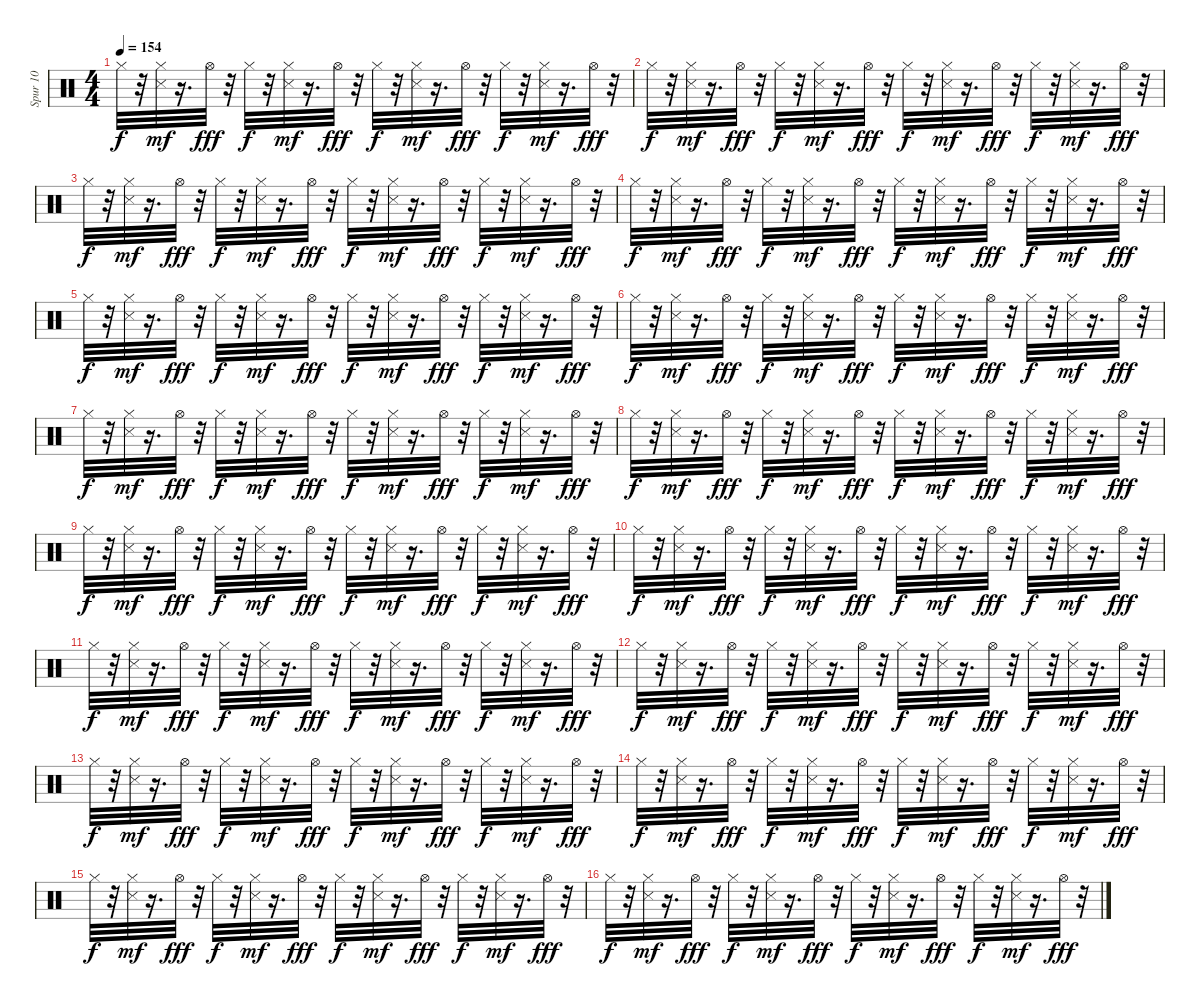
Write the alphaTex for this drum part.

\track ("Spur 10" "Spur 10") {instrument percussion}
\staff {score}
\articulation defaults
\ts (4 4)
\tempo 154
\clef neutral
\ks c "Hi-Hat (closed)".32{dy f}
r.32 ("Metronome (hit)" "Hi-Hat (closed)").32{dy mf} r.16{d} "Hi-Hat (open)".32{dy fff} r.32 "Hi-Hat (closed)".32{dy f} r.32 ("Metronome (hit)" "Hi-Hat (closed)").32{dy mf} r.16{d} "Hi-Hat (open)".32{dy fff} r.32 "Hi-Hat (closed)".32{dy f} r.32 ("Metronome (hit)" "Hi-Hat (closed)").32{dy mf} r.16{d} "Hi-Hat (open)".32{dy fff} r.32 "Hi-Hat (closed)".32{dy f} r.32 ("Metronome (hit)" "Hi-Hat (closed)").32{dy mf} r.16{d} "Hi-Hat (open)".32{dy fff} r.32 |
"Hi-Hat (closed)".32{dy f} r.32 ("Metronome (hit)" "Hi-Hat (closed)").32{dy mf} r.16{d} "Hi-Hat (open)".32{dy fff} r.32 "Hi-Hat (closed)".32{dy f} r.32 ("Metronome (hit)" "Hi-Hat (closed)").32{dy mf} r.16{d} "Hi-Hat (open)".32{dy fff} r.32 "Hi-Hat (closed)".32{dy f} r.32 ("Metronome (hit)" "Hi-Hat (closed)").32{dy mf} r.16{d} "Hi-Hat (open)".32{dy fff} r.32 "Hi-Hat (closed)".32{dy f} r.32 ("Metronome (hit)" "Hi-Hat (closed)").32{dy mf} r.16{d} "Hi-Hat (open)".32{dy fff} r.32 |
"Hi-Hat (closed)".32{dy f} r.32 ("Metronome (hit)" "Hi-Hat (closed)").32{dy mf} r.16{d} "Hi-Hat (open)".32{dy fff} r.32 "Hi-Hat (closed)".32{dy f} r.32 ("Metronome (hit)" "Hi-Hat (closed)").32{dy mf} r.16{d} "Hi-Hat (open)".32{dy fff} r.32 "Hi-Hat (closed)".32{dy f} r.32 ("Metronome (hit)" "Hi-Hat (closed)").32{dy mf} r.16{d} "Hi-Hat (open)".32{dy fff} r.32 "Hi-Hat (closed)".32{dy f} r.32 ("Metronome (hit)" "Hi-Hat (closed)").32{dy mf} r.16{d} "Hi-Hat (open)".32{dy fff} r.32 |
"Hi-Hat (closed)".32{dy f} r.32 ("Metronome (hit)" "Hi-Hat (closed)").32{dy mf} r.16{d} "Hi-Hat (open)".32{dy fff} r.32 "Hi-Hat (closed)".32{dy f} r.32 ("Metronome (hit)" "Hi-Hat (closed)").32{dy mf} r.16{d} "Hi-Hat (open)".32{dy fff} r.32 "Hi-Hat (closed)".32{dy f} r.32 ("Metronome (hit)" "Hi-Hat (closed)").32{dy mf} r.16{d} "Hi-Hat (open)".32{dy fff} r.32 "Hi-Hat (closed)".32{dy f} r.32 ("Metronome (hit)" "Hi-Hat (closed)").32{dy mf} r.16{d} "Hi-Hat (open)".32{dy fff} r.32 |
"Hi-Hat (closed)".32{dy f} r.32 ("Metronome (hit)" "Hi-Hat (closed)").32{dy mf} r.16{d} "Hi-Hat (open)".32{dy fff} r.32 "Hi-Hat (closed)".32{dy f} r.32 ("Metronome (hit)" "Hi-Hat (closed)").32{dy mf} r.16{d} "Hi-Hat (open)".32{dy fff} r.32 "Hi-Hat (closed)".32{dy f} r.32 ("Metronome (hit)" "Hi-Hat (closed)").32{dy mf} r.16{d} "Hi-Hat (open)".32{dy fff} r.32 "Hi-Hat (closed)".32{dy f} r.32 ("Metronome (hit)" "Hi-Hat (closed)").32{dy mf} r.16{d} "Hi-Hat (open)".32{dy fff} r.32 |
"Hi-Hat (closed)".32{dy f} r.32 ("Metronome (hit)" "Hi-Hat (closed)").32{dy mf} r.16{d} "Hi-Hat (open)".32{dy fff} r.32 "Hi-Hat (closed)".32{dy f} r.32 ("Metronome (hit)" "Hi-Hat (closed)").32{dy mf} r.16{d} "Hi-Hat (open)".32{dy fff} r.32 "Hi-Hat (closed)".32{dy f} r.32 ("Metronome (hit)" "Hi-Hat (closed)").32{dy mf} r.16{d} "Hi-Hat (open)".32{dy fff} r.32 "Hi-Hat (closed)".32{dy f} r.32 ("Metronome (hit)" "Hi-Hat (closed)").32{dy mf} r.16{d} "Hi-Hat (open)".32{dy fff} r.32 |
"Hi-Hat (closed)".32{dy f} r.32 ("Metronome (hit)" "Hi-Hat (closed)").32{dy mf} r.16{d} "Hi-Hat (open)".32{dy fff} r.32 "Hi-Hat (closed)".32{dy f} r.32 ("Metronome (hit)" "Hi-Hat (closed)").32{dy mf} r.16{d} "Hi-Hat (open)".32{dy fff} r.32 "Hi-Hat (closed)".32{dy f} r.32 ("Metronome (hit)" "Hi-Hat (closed)").32{dy mf} r.16{d} "Hi-Hat (open)".32{dy fff} r.32 "Hi-Hat (closed)".32{dy f} r.32 ("Metronome (hit)" "Hi-Hat (closed)").32{dy mf} r.16{d} "Hi-Hat (open)".32{dy fff} r.32 |
"Hi-Hat (closed)".32{dy f} r.32 ("Metronome (hit)" "Hi-Hat (closed)").32{dy mf} r.16{d} "Hi-Hat (open)".32{dy fff} r.32 "Hi-Hat (closed)".32{dy f} r.32 ("Metronome (hit)" "Hi-Hat (closed)").32{dy mf} r.16{d} "Hi-Hat (open)".32{dy fff} r.32 "Hi-Hat (closed)".32{dy f} r.32 ("Metronome (hit)" "Hi-Hat (closed)").32{dy mf} r.16{d} "Hi-Hat (open)".32{dy fff} r.32 "Hi-Hat (closed)".32{dy f} r.32 ("Metronome (hit)" "Hi-Hat (closed)").32{dy mf} r.16{d} "Hi-Hat (open)".32{dy fff} r.32 |
"Hi-Hat (closed)".32{dy f} r.32 ("Metronome (hit)" "Hi-Hat (closed)").32{dy mf} r.16{d} "Hi-Hat (open)".32{dy fff} r.32 "Hi-Hat (closed)".32{dy f} r.32 ("Metronome (hit)" "Hi-Hat (closed)").32{dy mf} r.16{d} "Hi-Hat (open)".32{dy fff} r.32 "Hi-Hat (closed)".32{dy f} r.32 ("Metronome (hit)" "Hi-Hat (closed)").32{dy mf} r.16{d} "Hi-Hat (open)".32{dy fff} r.32 "Hi-Hat (closed)".32{dy f} r.32 ("Metronome (hit)" "Hi-Hat (closed)").32{dy mf} r.16{d} "Hi-Hat (open)".32{dy fff} r.32 |
"Hi-Hat (closed)".32{dy f} r.32 ("Metronome (hit)" "Hi-Hat (closed)").32{dy mf} r.16{d} "Hi-Hat (open)".32{dy fff} r.32 "Hi-Hat (closed)".32{dy f} r.32 ("Metronome (hit)" "Hi-Hat (closed)").32{dy mf} r.16{d} "Hi-Hat (open)".32{dy fff} r.32 "Hi-Hat (closed)".32{dy f} r.32 ("Metronome (hit)" "Hi-Hat (closed)").32{dy mf} r.16{d} "Hi-Hat (open)".32{dy fff} r.32 "Hi-Hat (closed)".32{dy f} r.32 ("Metronome (hit)" "Hi-Hat (closed)").32{dy mf} r.16{d} "Hi-Hat (open)".32{dy fff} r.32 |
"Hi-Hat (closed)".32{dy f} r.32 ("Metronome (hit)" "Hi-Hat (closed)").32{dy mf} r.16{d} "Hi-Hat (open)".32{dy fff} r.32 "Hi-Hat (closed)".32{dy f} r.32 ("Metronome (hit)" "Hi-Hat (closed)").32{dy mf} r.16{d} "Hi-Hat (open)".32{dy fff} r.32 "Hi-Hat (closed)".32{dy f} r.32 ("Metronome (hit)" "Hi-Hat (closed)").32{dy mf} r.16{d} "Hi-Hat (open)".32{dy fff} r.32 "Hi-Hat (closed)".32{dy f} r.32 ("Metronome (hit)" "Hi-Hat (closed)").32{dy mf} r.16{d} "Hi-Hat (open)".32{dy fff} r.32 |
"Hi-Hat (closed)".32{dy f} r.32 ("Metronome (hit)" "Hi-Hat (closed)").32{dy mf} r.16{d} "Hi-Hat (open)".32{dy fff} r.32 "Hi-Hat (closed)".32{dy f} r.32 ("Metronome (hit)" "Hi-Hat (closed)").32{dy mf} r.16{d} "Hi-Hat (open)".32{dy fff} r.32 "Hi-Hat (closed)".32{dy f} r.32 ("Metronome (hit)" "Hi-Hat (closed)").32{dy mf} r.16{d} "Hi-Hat (open)".32{dy fff} r.32 "Hi-Hat (closed)".32{dy f} r.32 ("Metronome (hit)" "Hi-Hat (closed)").32{dy mf} r.16{d} "Hi-Hat (open)".32{dy fff} r.32 |
"Hi-Hat (closed)".32{dy f} r.32 ("Metronome (hit)" "Hi-Hat (closed)").32{dy mf} r.16{d} "Hi-Hat (open)".32{dy fff} r.32 "Hi-Hat (closed)".32{dy f} r.32 ("Metronome (hit)" "Hi-Hat (closed)").32{dy mf} r.16{d} "Hi-Hat (open)".32{dy fff} r.32 "Hi-Hat (closed)".32{dy f} r.32 ("Metronome (hit)" "Hi-Hat (closed)").32{dy mf} r.16{d} "Hi-Hat (open)".32{dy fff} r.32 "Hi-Hat (closed)".32{dy f} r.32 ("Metronome (hit)" "Hi-Hat (closed)").32{dy mf} r.16{d} "Hi-Hat (open)".32{dy fff} r.32 |
"Hi-Hat (closed)".32{dy f} r.32 ("Metronome (hit)" "Hi-Hat (closed)").32{dy mf} r.16{d} "Hi-Hat (open)".32{dy fff} r.32 "Hi-Hat (closed)".32{dy f} r.32 ("Metronome (hit)" "Hi-Hat (closed)").32{dy mf} r.16{d} "Hi-Hat (open)".32{dy fff} r.32 "Hi-Hat (closed)".32{dy f} r.32 ("Metronome (hit)" "Hi-Hat (closed)").32{dy mf} r.16{d} "Hi-Hat (open)".32{dy fff} r.32 "Hi-Hat (closed)".32{dy f} r.32 ("Metronome (hit)" "Hi-Hat (closed)").32{dy mf} r.16{d} "Hi-Hat (open)".32{dy fff} r.32 |
"Hi-Hat (closed)".32{dy f} r.32 ("Metronome (hit)" "Hi-Hat (closed)").32{dy mf} r.16{d} "Hi-Hat (open)".32{dy fff} r.32 "Hi-Hat (closed)".32{dy f} r.32 ("Metronome (hit)" "Hi-Hat (closed)").32{dy mf} r.16{d} "Hi-Hat (open)".32{dy fff} r.32 "Hi-Hat (closed)".32{dy f} r.32 ("Metronome (hit)" "Hi-Hat (closed)").32{dy mf} r.16{d} "Hi-Hat (open)".32{dy fff} r.32 "Hi-Hat (closed)".32{dy f} r.32 ("Metronome (hit)" "Hi-Hat (closed)").32{dy mf} r.16{d} "Hi-Hat (open)".32{dy fff} r.32 |
"Hi-Hat (closed)".32{dy f} r.32 ("Metronome (hit)" "Hi-Hat (closed)").32{dy mf} r.16{d} "Hi-Hat (open)".32{dy fff} r.32 "Hi-Hat (closed)".32{dy f} r.32 ("Metronome (hit)" "Hi-Hat (closed)").32{dy mf} r.16{d} "Hi-Hat (open)".32{dy fff} r.32 "Hi-Hat (closed)".32{dy f} r.32 ("Metronome (hit)" "Hi-Hat (closed)").32{dy mf} r.16{d} "Hi-Hat (open)".32{dy fff} r.32 "Hi-Hat (closed)".32{dy f} r.32 ("Metronome (hit)" "Hi-Hat (closed)").32{dy mf} r.16{d} "Hi-Hat (open)".32{dy fff} r.32
